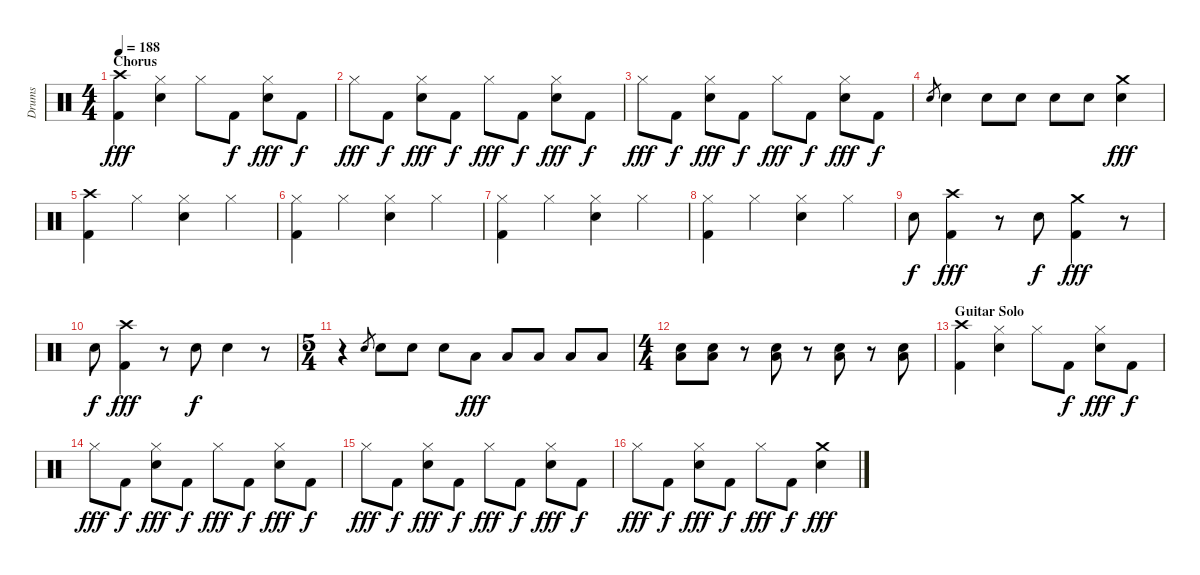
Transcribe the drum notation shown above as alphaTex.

\track ("Drums" "Drums") {instrument percussion}
\staff {score}
\articulation defaults
\ts (4 4)
\section ("" "Chorus")
\tempo 188
\clef neutral
\ks c
("Crash high (hit)" "Kick (hit) 2").4{dy fff} ("Hi-Hat (closed)" "Snare (hit) 2").4 "Hi-Hat (closed)".8 "Kick (hit) 2".8{dy f} ("Hi-Hat (closed)" "Snare (hit) 2").8{dy fff} "Kick (hit) 2".8{dy f} |
"Hi-Hat (closed)".8{dy fff} "Kick (hit) 2".8{dy f} ("Hi-Hat (closed)" "Snare (hit) 2").8{dy fff} "Kick (hit) 2".8{dy f} "Hi-Hat (closed)".8{dy fff} "Kick (hit) 2".8{dy f} ("Hi-Hat (closed)" "Snare (hit) 2").8{dy fff} "Kick (hit) 2".8{dy f} |
"Hi-Hat (closed)".8{dy fff} "Kick (hit) 2".8{dy f} ("Hi-Hat (closed)" "Snare (hit) 2").8{dy fff} "Kick (hit) 2".8{dy f} "Hi-Hat (closed)".8{dy fff} "Kick (hit) 2".8{dy f} ("Hi-Hat (closed)" "Snare (hit) 2").8{dy fff} "Kick (hit) 2".8{dy f} |
"Snare (hit) 2".8{gr} "Snare (hit) 2".4 "Snare (hit) 2".8 "Snare (hit) 2".8 "Snare (hit) 2".8 "Snare (hit) 2".8 ("Crash medium (hit)" "Snare (hit) 2").4{dy fff} |
("Crash high (hit)" "Kick (hit) 2").4 "Hi-Hat (closed)".4 ("Hi-Hat (closed)" "Snare (hit) 2").4 "Hi-Hat (closed)".4 |
("Hi-Hat (closed)" "Kick (hit) 2").4 "Hi-Hat (closed)".4 ("Hi-Hat (closed)" "Snare (hit) 2").4 "Hi-Hat (closed)".4 |
("Hi-Hat (closed)" "Kick (hit) 2").4 "Hi-Hat (closed)".4 ("Hi-Hat (closed)" "Snare (hit) 2").4 "Hi-Hat (closed)".4 |
("Hi-Hat (closed)" "Kick (hit) 2").4 "Hi-Hat (closed)".4 ("Hi-Hat (closed)" "Snare (hit) 2").4 "Hi-Hat (closed)".4 |
"Snare (hit) 2".8{dy f} ("Crash high (hit)" "Kick (hit) 2").4{dy fff} r.8 "Snare (hit) 2".8{dy f} ("Crash medium (hit)" "Kick (hit) 2").4{dy fff} r.8 |
"Snare (hit) 2".8{dy f} ("Crash high (hit)" "Kick (hit) 2").4{dy fff} r.8 "Snare (hit) 2".8{dy f} "Snare (hit) 2".4 r.8 |
\ts (5 4)
r.4 "Snare (hit) 2".8{gr} "Snare (hit) 2".8 "Snare (hit) 2".8 "Snare (hit) 2".8 "Low Tom (hit)".8{dy fff} "Low Tom (hit)".8 "Low Tom (hit)".8 "Low Tom (hit)".8 "Low Tom (hit)".8 |
\ts (4 4)
("Low Floor Tom (hit)" "Snare (hit) 2").8 ("Low Floor Tom (hit)" "Snare (hit) 2").8 r.8 ("Low Floor Tom (hit)" "Snare (hit) 2").8 r.8 ("Low Floor Tom (hit)" "Snare (hit) 2").8 r.8 ("Low Floor Tom (hit)" "Snare (hit) 2").8 |
\section ("" "Guitar Solo")
("Crash high (hit)" "Kick (hit) 2").4 ("Hi-Hat (closed)" "Snare (hit) 2").4 "Hi-Hat (closed)".8 "Kick (hit) 2".8{dy f} ("Hi-Hat (closed)" "Snare (hit) 2").8{dy fff} "Kick (hit) 2".8{dy f} |
"Hi-Hat (closed)".8{dy fff} "Kick (hit) 2".8{dy f} ("Hi-Hat (closed)" "Snare (hit) 2").8{dy fff} "Kick (hit) 2".8{dy f} "Hi-Hat (closed)".8{dy fff} "Kick (hit) 2".8{dy f} ("Hi-Hat (closed)" "Snare (hit) 2").8{dy fff} "Kick (hit) 2".8{dy f} |
"Hi-Hat (closed)".8{dy fff} "Kick (hit) 2".8{dy f} ("Hi-Hat (closed)" "Snare (hit) 2").8{dy fff} "Kick (hit) 2".8{dy f} "Hi-Hat (closed)".8{dy fff} "Kick (hit) 2".8{dy f} ("Hi-Hat (closed)" "Snare (hit) 2").8{dy fff} "Kick (hit) 2".8{dy f} |
"Hi-Hat (closed)".8{dy fff} "Kick (hit) 2".8{dy f} ("Hi-Hat (closed)" "Snare (hit) 2").8{dy fff} "Kick (hit) 2".8{dy f} "Hi-Hat (closed)".8{dy fff} "Kick (hit) 2".8{dy f} ("Crash medium (hit)" "Snare (hit) 2").4{dy fff}
